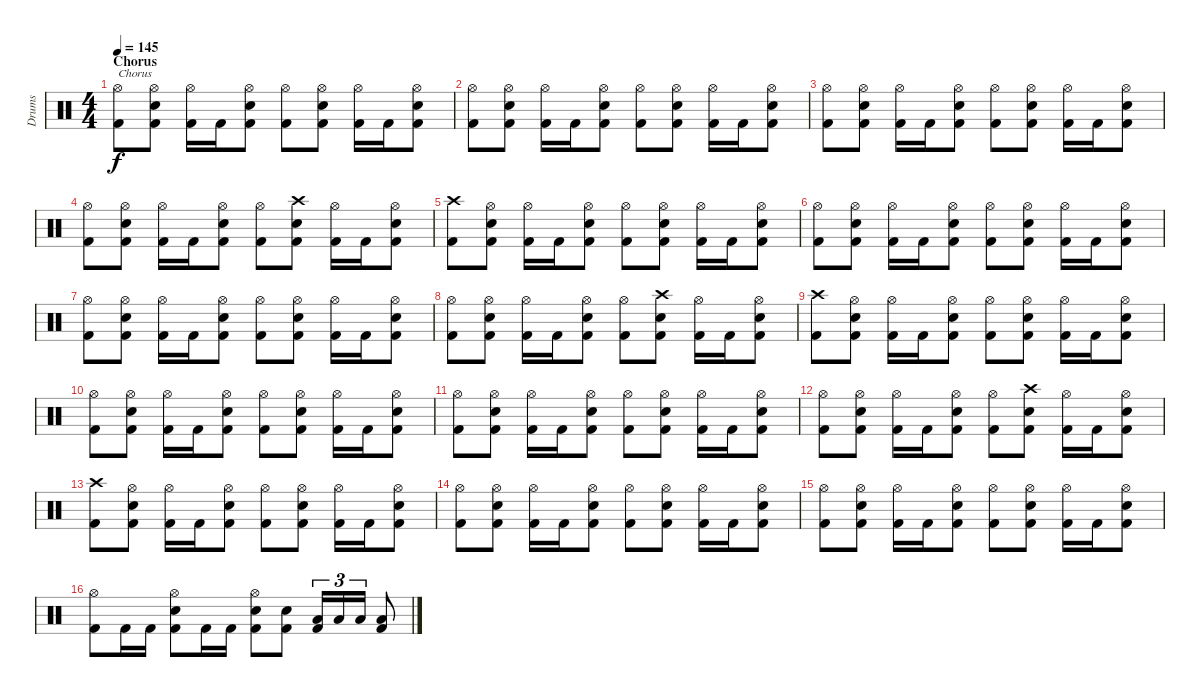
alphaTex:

\track ("Drums" "Drums") {instrument percussion}
\staff {score}
\articulation defaults
\ts (4 4)
\section ("" "Chorus")
\tempo 145
\clef neutral
\ks c
("Hi-Hat (open)" "Kick (hit) 2").8{txt "Chorus" dy f} ("Hi-Hat (open)" "Electric Snare (hit)" "Kick (hit) 2").8 ("Hi-Hat (open)" "Kick (hit) 2").16 "Kick (hit) 2".16 ("Hi-Hat (open)" "Electric Snare (hit)" "Kick (hit) 2").8 ("Hi-Hat (open)" "Kick (hit) 2").8 ("Hi-Hat (open)" "Electric Snare (hit)" "Kick (hit) 2").8 ("Hi-Hat (open)" "Kick (hit) 2").16 "Kick (hit) 2".16 ("Hi-Hat (open)" "Electric Snare (hit)" "Kick (hit) 2").8 |
("Hi-Hat (open)" "Kick (hit) 2").8 ("Hi-Hat (open)" "Electric Snare (hit)" "Kick (hit) 2").8 ("Hi-Hat (open)" "Kick (hit) 2").16 "Kick (hit) 2".16 ("Hi-Hat (open)" "Electric Snare (hit)" "Kick (hit) 2").8 ("Hi-Hat (open)" "Kick (hit) 2").8 ("Hi-Hat (open)" "Electric Snare (hit)" "Kick (hit) 2").8 ("Hi-Hat (open)" "Kick (hit) 2").16 "Kick (hit) 2".16 ("Hi-Hat (open)" "Electric Snare (hit)" "Kick (hit) 2").8 |
("Hi-Hat (open)" "Kick (hit) 2").8 ("Hi-Hat (open)" "Electric Snare (hit)" "Kick (hit) 2").8 ("Hi-Hat (open)" "Kick (hit) 2").16 "Kick (hit) 2".16 ("Hi-Hat (open)" "Electric Snare (hit)" "Kick (hit) 2").8 ("Hi-Hat (open)" "Kick (hit) 2").8 ("Hi-Hat (open)" "Electric Snare (hit)" "Kick (hit) 2").8 ("Hi-Hat (open)" "Kick (hit) 2").16 "Kick (hit) 2".16 ("Hi-Hat (open)" "Electric Snare (hit)" "Kick (hit) 2").8 |
("Hi-Hat (open)" "Kick (hit) 2").8 ("Hi-Hat (open)" "Electric Snare (hit)" "Kick (hit) 2").8 ("Hi-Hat (open)" "Kick (hit) 2").16 "Kick (hit) 2".16 ("Hi-Hat (open)" "Electric Snare (hit)" "Kick (hit) 2").8 ("Hi-Hat (open)" "Kick (hit) 2").8 ("Crash high (hit)" "Electric Snare (hit)" "Kick (hit) 2").8 ("Hi-Hat (open)" "Kick (hit) 2").16 "Kick (hit) 2".16 ("Hi-Hat (open)" "Electric Snare (hit)" "Kick (hit) 2").8 |
("Crash high (hit)" "Kick (hit) 2").8 ("Hi-Hat (open)" "Electric Snare (hit)" "Kick (hit) 2").8 ("Hi-Hat (open)" "Kick (hit) 2").16 "Kick (hit) 2".16 ("Hi-Hat (open)" "Electric Snare (hit)" "Kick (hit) 2").8 ("Hi-Hat (open)" "Kick (hit) 2").8 ("Hi-Hat (open)" "Electric Snare (hit)" "Kick (hit) 2").8 ("Hi-Hat (open)" "Kick (hit) 2").16 "Kick (hit) 2".16 ("Hi-Hat (open)" "Electric Snare (hit)" "Kick (hit) 2").8 |
("Hi-Hat (open)" "Kick (hit) 2").8 ("Hi-Hat (open)" "Electric Snare (hit)" "Kick (hit) 2").8 ("Hi-Hat (open)" "Kick (hit) 2").16 "Kick (hit) 2".16 ("Hi-Hat (open)" "Electric Snare (hit)" "Kick (hit) 2").8 ("Hi-Hat (open)" "Kick (hit) 2").8 ("Hi-Hat (open)" "Electric Snare (hit)" "Kick (hit) 2").8 ("Hi-Hat (open)" "Kick (hit) 2").16 "Kick (hit) 2".16 ("Hi-Hat (open)" "Electric Snare (hit)" "Kick (hit) 2").8 |
("Hi-Hat (open)" "Kick (hit) 2").8 ("Hi-Hat (open)" "Electric Snare (hit)" "Kick (hit) 2").8 ("Hi-Hat (open)" "Kick (hit) 2").16 "Kick (hit) 2".16 ("Hi-Hat (open)" "Electric Snare (hit)" "Kick (hit) 2").8 ("Hi-Hat (open)" "Kick (hit) 2").8 ("Hi-Hat (open)" "Electric Snare (hit)" "Kick (hit) 2").8 ("Hi-Hat (open)" "Kick (hit) 2").16 "Kick (hit) 2".16 ("Hi-Hat (open)" "Electric Snare (hit)" "Kick (hit) 2").8 |
("Hi-Hat (open)" "Kick (hit) 2").8 ("Hi-Hat (open)" "Electric Snare (hit)" "Kick (hit) 2").8 ("Hi-Hat (open)" "Kick (hit) 2").16 "Kick (hit) 2".16 ("Hi-Hat (open)" "Electric Snare (hit)" "Kick (hit) 2").8 ("Hi-Hat (open)" "Kick (hit) 2").8 ("Crash high (hit)" "Electric Snare (hit)" "Kick (hit) 2").8 ("Hi-Hat (open)" "Kick (hit) 2").16 "Kick (hit) 2".16 ("Hi-Hat (open)" "Electric Snare (hit)" "Kick (hit) 2").8 |
("Crash high (hit)" "Kick (hit) 2").8 ("Hi-Hat (open)" "Electric Snare (hit)" "Kick (hit) 2").8 ("Hi-Hat (open)" "Kick (hit) 2").16 "Kick (hit) 2".16 ("Hi-Hat (open)" "Electric Snare (hit)" "Kick (hit) 2").8 ("Hi-Hat (open)" "Kick (hit) 2").8 ("Hi-Hat (open)" "Electric Snare (hit)" "Kick (hit) 2").8 ("Hi-Hat (open)" "Kick (hit) 2").16 "Kick (hit) 2".16 ("Hi-Hat (open)" "Electric Snare (hit)" "Kick (hit) 2").8 |
("Hi-Hat (open)" "Kick (hit) 2").8 ("Hi-Hat (open)" "Electric Snare (hit)" "Kick (hit) 2").8 ("Hi-Hat (open)" "Kick (hit) 2").16 "Kick (hit) 2".16 ("Hi-Hat (open)" "Electric Snare (hit)" "Kick (hit) 2").8 ("Hi-Hat (open)" "Kick (hit) 2").8 ("Hi-Hat (open)" "Electric Snare (hit)" "Kick (hit) 2").8 ("Hi-Hat (open)" "Kick (hit) 2").16 "Kick (hit) 2".16 ("Hi-Hat (open)" "Electric Snare (hit)" "Kick (hit) 2").8 |
("Hi-Hat (open)" "Kick (hit) 2").8 ("Hi-Hat (open)" "Electric Snare (hit)" "Kick (hit) 2").8 ("Hi-Hat (open)" "Kick (hit) 2").16 "Kick (hit) 2".16 ("Hi-Hat (open)" "Electric Snare (hit)" "Kick (hit) 2").8 ("Hi-Hat (open)" "Kick (hit) 2").8 ("Hi-Hat (open)" "Electric Snare (hit)" "Kick (hit) 2").8 ("Hi-Hat (open)" "Kick (hit) 2").16 "Kick (hit) 2".16 ("Hi-Hat (open)" "Electric Snare (hit)" "Kick (hit) 2").8 |
("Hi-Hat (open)" "Kick (hit) 2").8 ("Hi-Hat (open)" "Electric Snare (hit)" "Kick (hit) 2").8 ("Hi-Hat (open)" "Kick (hit) 2").16 "Kick (hit) 2".16 ("Hi-Hat (open)" "Electric Snare (hit)" "Kick (hit) 2").8 ("Hi-Hat (open)" "Kick (hit) 2").8 ("Crash high (hit)" "Electric Snare (hit)" "Kick (hit) 2").8 ("Hi-Hat (open)" "Kick (hit) 2").16 "Kick (hit) 2".16 ("Hi-Hat (open)" "Electric Snare (hit)" "Kick (hit) 2").8 |
("Crash high (hit)" "Kick (hit) 2").8 ("Hi-Hat (open)" "Electric Snare (hit)" "Kick (hit) 2").8 ("Hi-Hat (open)" "Kick (hit) 2").16 "Kick (hit) 2".16 ("Hi-Hat (open)" "Electric Snare (hit)" "Kick (hit) 2").8 ("Hi-Hat (open)" "Kick (hit) 2").8 ("Hi-Hat (open)" "Electric Snare (hit)" "Kick (hit) 2").8 ("Hi-Hat (open)" "Kick (hit) 2").16 "Kick (hit) 2".16 ("Hi-Hat (open)" "Electric Snare (hit)" "Kick (hit) 2").8 |
("Hi-Hat (open)" "Kick (hit) 2").8 ("Hi-Hat (open)" "Electric Snare (hit)" "Kick (hit) 2").8 ("Hi-Hat (open)" "Kick (hit) 2").16 "Kick (hit) 2".16 ("Hi-Hat (open)" "Electric Snare (hit)" "Kick (hit) 2").8 ("Hi-Hat (open)" "Kick (hit) 2").8 ("Hi-Hat (open)" "Electric Snare (hit)" "Kick (hit) 2").8 ("Hi-Hat (open)" "Kick (hit) 2").16 "Kick (hit) 2".16 ("Hi-Hat (open)" "Electric Snare (hit)" "Kick (hit) 2").8 |
("Hi-Hat (open)" "Kick (hit) 2").8 ("Hi-Hat (open)" "Electric Snare (hit)" "Kick (hit) 2").8 ("Hi-Hat (open)" "Kick (hit) 2").16 "Kick (hit) 2".16 ("Hi-Hat (open)" "Electric Snare (hit)" "Kick (hit) 2").8 ("Hi-Hat (open)" "Kick (hit) 2").8 ("Hi-Hat (open)" "Electric Snare (hit)" "Kick (hit) 2").8 ("Hi-Hat (open)" "Kick (hit) 2").16 "Kick (hit) 2".16 ("Hi-Hat (open)" "Electric Snare (hit)" "Kick (hit) 2").8 |
("Hi-Hat (open)" "Kick (hit) 2").8 "Kick (hit) 2".16 "Kick (hit) 2".16 ("Hi-Hat (open)" "Electric Snare (hit)" "Kick (hit) 2").8 "Kick (hit) 2".16 "Kick (hit) 2".16 ("Hi-Hat (open)" "Electric Snare (hit)" "Kick (hit) 2").8 ("Electric Snare (hit)" "Kick (hit) 2").8 ("Low Tom (hit)" "Kick (hit) 2").16{tu (3 2)} "Low Tom (hit)".16{tu (3 2)} "Low Tom (hit)".16{tu (3 2)} ("Low Tom (hit)" "Kick (hit) 2").8
